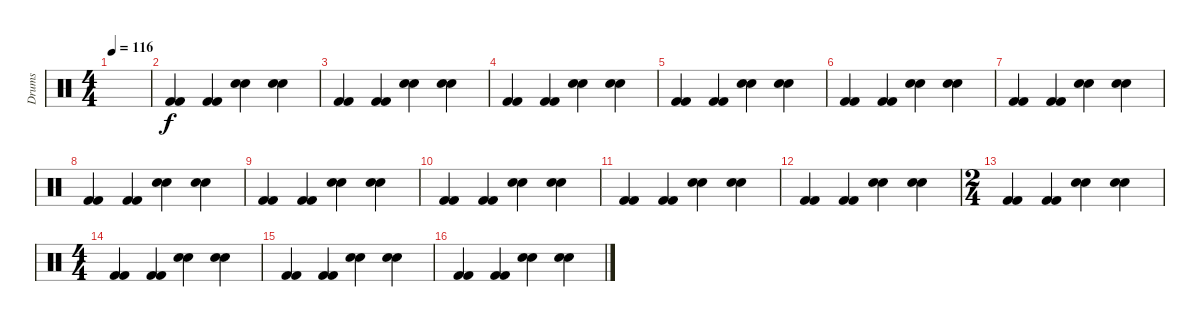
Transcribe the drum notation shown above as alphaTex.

\track ("Drums" "Drums") {instrument percussion}
\staff {score}
\articulation defaults
\ts (4 4)
\tempo 116
\clef neutral
\ks c
|
("Kick (hit) 2" "Kick (hit) 2").4 ("Kick (hit) 2" "Kick (hit) 2").4 ("Snare (hit) 2" "Snare (hit) 2").4 ("Snare (hit) 2" "Snare (hit) 2").4 |
("Kick (hit) 2" "Kick (hit) 2").4 ("Kick (hit) 2" "Kick (hit) 2").4 ("Snare (hit) 2" "Snare (hit) 2").4 ("Snare (hit) 2" "Snare (hit) 2").4 |
("Kick (hit) 2" "Kick (hit) 2").4 ("Kick (hit) 2" "Kick (hit) 2").4 ("Snare (hit) 2" "Snare (hit) 2").4 ("Snare (hit) 2" "Snare (hit) 2").4 |
("Kick (hit) 2" "Kick (hit) 2").4 ("Kick (hit) 2" "Kick (hit) 2").4 ("Snare (hit) 2" "Snare (hit) 2").4 ("Snare (hit) 2" "Snare (hit) 2").4 |
("Kick (hit) 2" "Kick (hit) 2").4 ("Kick (hit) 2" "Kick (hit) 2").4 ("Snare (hit) 2" "Snare (hit) 2").4 ("Snare (hit) 2" "Snare (hit) 2").4 |
("Kick (hit) 2" "Kick (hit) 2").4 ("Kick (hit) 2" "Kick (hit) 2").4 ("Snare (hit) 2" "Snare (hit) 2").4 ("Snare (hit) 2" "Snare (hit) 2").4 |
("Kick (hit) 2" "Kick (hit) 2").4 ("Kick (hit) 2" "Kick (hit) 2").4 ("Snare (hit) 2" "Snare (hit) 2").4 ("Snare (hit) 2" "Snare (hit) 2").4 |
("Kick (hit) 2" "Kick (hit) 2").4 ("Kick (hit) 2" "Kick (hit) 2").4 ("Snare (hit) 2" "Snare (hit) 2").4 ("Snare (hit) 2" "Snare (hit) 2").4 |
("Kick (hit) 2" "Kick (hit) 2").4 ("Kick (hit) 2" "Kick (hit) 2").4 ("Snare (hit) 2" "Snare (hit) 2").4 ("Snare (hit) 2" "Snare (hit) 2").4 |
("Kick (hit) 2" "Kick (hit) 2").4 ("Kick (hit) 2" "Kick (hit) 2").4 ("Snare (hit) 2" "Snare (hit) 2").4 ("Snare (hit) 2" "Snare (hit) 2").4 |
("Kick (hit) 2" "Kick (hit) 2").4 ("Kick (hit) 2" "Kick (hit) 2").4 ("Snare (hit) 2" "Snare (hit) 2").4 ("Snare (hit) 2" "Snare (hit) 2").4 |
\ts (2 4)
("Kick (hit) 2" "Kick (hit) 2").4 ("Kick (hit) 2" "Kick (hit) 2").4 ("Snare (hit) 2" "Snare (hit) 2").4 ("Snare (hit) 2" "Snare (hit) 2").4 |
\ts (4 4)
("Kick (hit) 2" "Kick (hit) 2").4 ("Kick (hit) 2" "Kick (hit) 2").4 ("Snare (hit) 2" "Snare (hit) 2").4 ("Snare (hit) 2" "Snare (hit) 2").4 |
("Kick (hit) 2" "Kick (hit) 2").4 ("Kick (hit) 2" "Kick (hit) 2").4 ("Snare (hit) 2" "Snare (hit) 2").4 ("Snare (hit) 2" "Snare (hit) 2").4 |
("Kick (hit) 2" "Kick (hit) 2").4 ("Kick (hit) 2" "Kick (hit) 2").4 ("Snare (hit) 2" "Snare (hit) 2").4 ("Snare (hit) 2" "Snare (hit) 2").4
